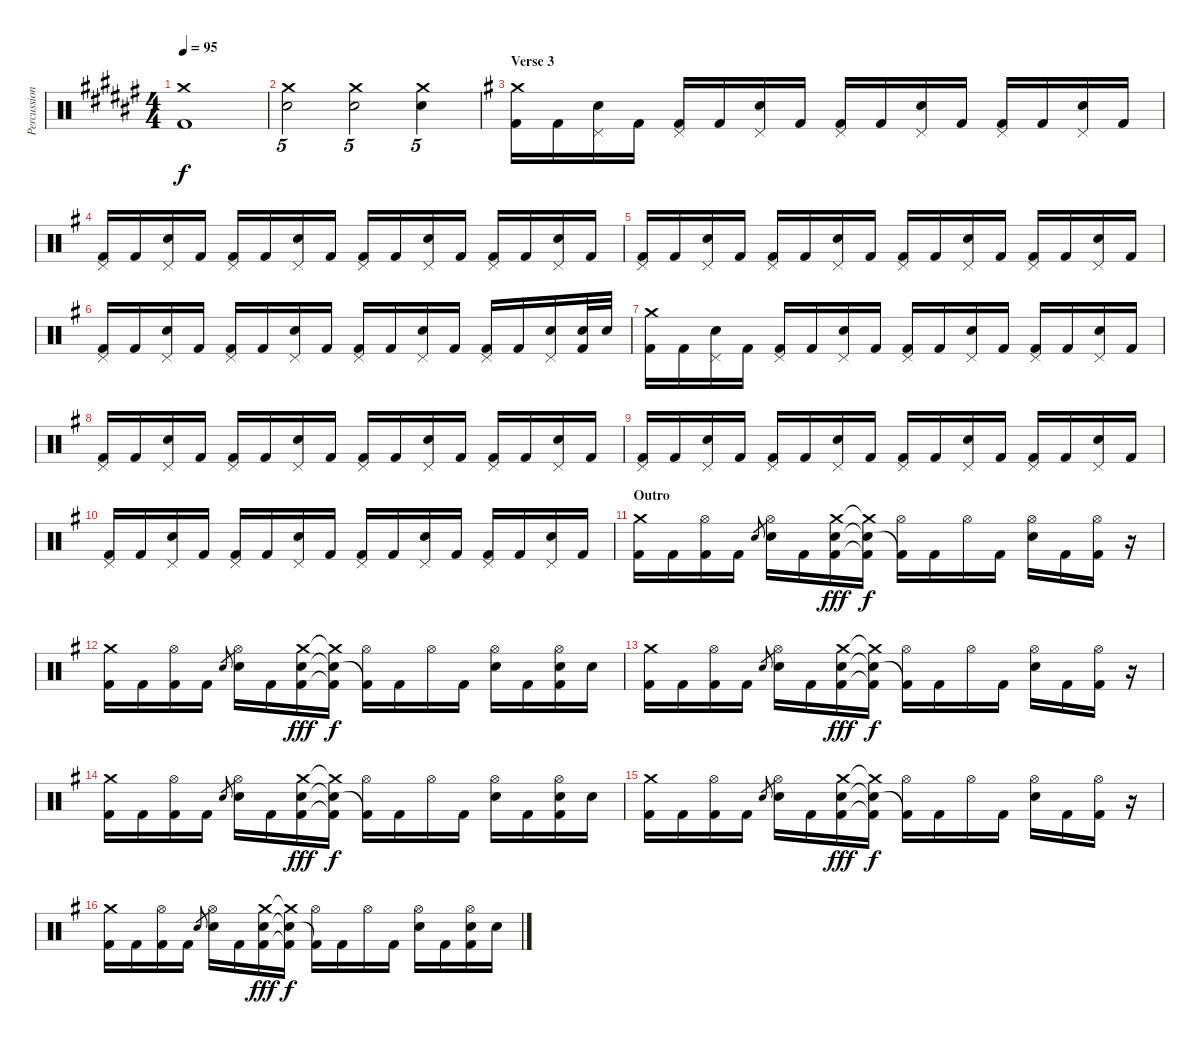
\track ("Percussions" "Percussion") {instrument percussion}
\staff {score}
\articulation defaults
\ts (4 4)
\tempo 95
\clef neutral
\ks d#minor
("Crash medium (hit)" "Kick (hit) 2").1{dy f} |
("Crash medium (hit)" "Electric Snare (hit)").2{tu (5 4)} ("Crash medium (hit)" "Electric Snare (hit)").2{tu (5 4)} ("Crash medium (hit)" "Electric Snare (hit)").4{tu (5 4)} |
\section ("" "Verse 3")
\ks eminor
("Crash medium (hit)" "Kick (hit) 2").16 "Kick (hit) 2".16 ("Pedal Hi-Hat (hit)" "Electric Snare (hit)").16 "Kick (hit) 2".16 ("Pedal Hi-Hat (hit)" "Kick (hit) 2").16 "Kick (hit) 2".16 ("Pedal Hi-Hat (hit)" "Electric Snare (hit)").16 "Kick (hit) 2".16 ("Pedal Hi-Hat (hit)" "Kick (hit) 2").16 "Kick (hit) 2".16 ("Pedal Hi-Hat (hit)" "Electric Snare (hit)").16 "Kick (hit) 2".16 ("Pedal Hi-Hat (hit)" "Kick (hit) 2").16 "Kick (hit) 2".16 ("Pedal Hi-Hat (hit)" "Electric Snare (hit)").16 "Kick (hit) 2".16 |
("Pedal Hi-Hat (hit)" "Kick (hit) 2").16 "Kick (hit) 2".16 ("Pedal Hi-Hat (hit)" "Electric Snare (hit)").16 "Kick (hit) 2".16 ("Pedal Hi-Hat (hit)" "Kick (hit) 2").16 "Kick (hit) 2".16 ("Pedal Hi-Hat (hit)" "Electric Snare (hit)").16 "Kick (hit) 2".16 ("Pedal Hi-Hat (hit)" "Kick (hit) 2").16 "Kick (hit) 2".16 ("Pedal Hi-Hat (hit)" "Electric Snare (hit)").16 "Kick (hit) 2".16 ("Pedal Hi-Hat (hit)" "Kick (hit) 2").16 "Kick (hit) 2".16 ("Pedal Hi-Hat (hit)" "Electric Snare (hit)").16 "Kick (hit) 2".16 |
("Pedal Hi-Hat (hit)" "Kick (hit) 2").16 "Kick (hit) 2".16 ("Pedal Hi-Hat (hit)" "Electric Snare (hit)").16 "Kick (hit) 2".16 ("Pedal Hi-Hat (hit)" "Kick (hit) 2").16 "Kick (hit) 2".16 ("Pedal Hi-Hat (hit)" "Electric Snare (hit)").16 "Kick (hit) 2".16 ("Pedal Hi-Hat (hit)" "Kick (hit) 2").16 "Kick (hit) 2".16 ("Pedal Hi-Hat (hit)" "Electric Snare (hit)").16 "Kick (hit) 2".16 ("Pedal Hi-Hat (hit)" "Kick (hit) 2").16 "Kick (hit) 2".16 ("Pedal Hi-Hat (hit)" "Electric Snare (hit)").16 "Kick (hit) 2".16 |
("Pedal Hi-Hat (hit)" "Kick (hit) 2").16 "Kick (hit) 2".16 ("Pedal Hi-Hat (hit)" "Electric Snare (hit)").16 "Kick (hit) 2".16 ("Pedal Hi-Hat (hit)" "Kick (hit) 2").16 "Kick (hit) 2".16 ("Pedal Hi-Hat (hit)" "Electric Snare (hit)").16 "Kick (hit) 2".16 ("Pedal Hi-Hat (hit)" "Kick (hit) 2").16 "Kick (hit) 2".16 ("Pedal Hi-Hat (hit)" "Electric Snare (hit)").16 "Kick (hit) 2".16 ("Pedal Hi-Hat (hit)" "Kick (hit) 2").16 "Kick (hit) 2".16 ("Pedal Hi-Hat (hit)" "Electric Snare (hit)").16 ("Electric Snare (hit)" "Kick (hit) 2").32 "Electric Snare (hit)".32 |
("Crash medium (hit)" "Kick (hit) 2").16 "Kick (hit) 2".16 ("Pedal Hi-Hat (hit)" "Electric Snare (hit)").16 "Kick (hit) 2".16 ("Pedal Hi-Hat (hit)" "Kick (hit) 2").16 "Kick (hit) 2".16 ("Pedal Hi-Hat (hit)" "Electric Snare (hit)").16 "Kick (hit) 2".16 ("Pedal Hi-Hat (hit)" "Kick (hit) 2").16 "Kick (hit) 2".16 ("Pedal Hi-Hat (hit)" "Electric Snare (hit)").16 "Kick (hit) 2".16 ("Pedal Hi-Hat (hit)" "Kick (hit) 2").16 "Kick (hit) 2".16 ("Pedal Hi-Hat (hit)" "Electric Snare (hit)").16 "Kick (hit) 2".16 |
("Pedal Hi-Hat (hit)" "Kick (hit) 2").16 "Kick (hit) 2".16 ("Pedal Hi-Hat (hit)" "Electric Snare (hit)").16 "Kick (hit) 2".16 ("Pedal Hi-Hat (hit)" "Kick (hit) 2").16 "Kick (hit) 2".16 ("Pedal Hi-Hat (hit)" "Electric Snare (hit)").16 "Kick (hit) 2".16 ("Pedal Hi-Hat (hit)" "Kick (hit) 2").16 "Kick (hit) 2".16 ("Pedal Hi-Hat (hit)" "Electric Snare (hit)").16 "Kick (hit) 2".16 ("Pedal Hi-Hat (hit)" "Kick (hit) 2").16 "Kick (hit) 2".16 ("Pedal Hi-Hat (hit)" "Electric Snare (hit)").16 "Kick (hit) 2".16 |
("Pedal Hi-Hat (hit)" "Kick (hit) 2").16 "Kick (hit) 2".16 ("Pedal Hi-Hat (hit)" "Electric Snare (hit)").16 "Kick (hit) 2".16 ("Pedal Hi-Hat (hit)" "Kick (hit) 2").16 "Kick (hit) 2".16 ("Pedal Hi-Hat (hit)" "Electric Snare (hit)").16 "Kick (hit) 2".16 ("Pedal Hi-Hat (hit)" "Kick (hit) 2").16 "Kick (hit) 2".16 ("Pedal Hi-Hat (hit)" "Electric Snare (hit)").16 "Kick (hit) 2".16 ("Pedal Hi-Hat (hit)" "Kick (hit) 2").16 "Kick (hit) 2".16 ("Pedal Hi-Hat (hit)" "Electric Snare (hit)").16 "Kick (hit) 2".16 |
("Pedal Hi-Hat (hit)" "Kick (hit) 2").16 "Kick (hit) 2".16 ("Pedal Hi-Hat (hit)" "Electric Snare (hit)").16 "Kick (hit) 2".16 ("Pedal Hi-Hat (hit)" "Kick (hit) 2").16 "Kick (hit) 2".16 ("Pedal Hi-Hat (hit)" "Electric Snare (hit)").16 "Kick (hit) 2".16 ("Pedal Hi-Hat (hit)" "Kick (hit) 2").16 "Kick (hit) 2".16 ("Pedal Hi-Hat (hit)" "Electric Snare (hit)").16 "Kick (hit) 2".16 ("Pedal Hi-Hat (hit)" "Kick (hit) 2").16 "Kick (hit) 2".16 ("Pedal Hi-Hat (hit)" "Electric Snare (hit)").16 "Kick (hit) 2".16 |
\section ("" "Outro")
("Crash medium (hit)" "Kick (hit) 2").16 "Kick (hit) 2".16 ("Hi-Hat (open)" "Kick (hit) 2").16 "Kick (hit) 2".16 "Electric Snare (hit)".8{gr} ("Hi-Hat (open)" "Electric Snare (hit)").16 "Kick (hit) 2".16 ("Crash medium (hit)" "Electric Snare (hit)" "Kick (hit) 2").16{dy fff} ("Crash medium (hit)"{t} "Electric Snare (hit)"{t} "Kick (hit) 2"{t}).16{dy f} ("Hi-Hat (open)" "Kick (hit) 2"{t}).16 "Kick (hit) 2".16 "Hi-Hat (open)".16 "Kick (hit) 2".16 ("Hi-Hat (open)" "Electric Snare (hit)").16 "Kick (hit) 2".16 ("Hi-Hat (open)" "Kick (hit) 2").16 r.16 |
("Crash medium (hit)" "Kick (hit) 2").16 "Kick (hit) 2".16 ("Hi-Hat (open)" "Kick (hit) 2").16 "Kick (hit) 2".16 "Electric Snare (hit)".8{gr} ("Hi-Hat (open)" "Electric Snare (hit)").16 "Kick (hit) 2".16 ("Crash medium (hit)" "Electric Snare (hit)" "Kick (hit) 2").16{dy fff} ("Crash medium (hit)"{t} "Electric Snare (hit)"{t} "Kick (hit) 2"{t}).16{dy f} ("Hi-Hat (open)" "Kick (hit) 2"{t}).16 "Kick (hit) 2".16 "Hi-Hat (open)".16 "Kick (hit) 2".16 ("Hi-Hat (open)" "Electric Snare (hit)").16 "Kick (hit) 2".16 ("Hi-Hat (open)" "Electric Snare (hit)" "Kick (hit) 2").16 "Electric Snare (hit)".16 |
("Crash medium (hit)" "Kick (hit) 2").16 "Kick (hit) 2".16 ("Hi-Hat (open)" "Kick (hit) 2").16 "Kick (hit) 2".16 "Electric Snare (hit)".8{gr} ("Hi-Hat (open)" "Electric Snare (hit)").16 "Kick (hit) 2".16 ("Crash medium (hit)" "Electric Snare (hit)" "Kick (hit) 2").16{dy fff} ("Crash medium (hit)"{t} "Electric Snare (hit)"{t} "Kick (hit) 2"{t}).16{dy f} ("Hi-Hat (open)" "Kick (hit) 2"{t}).16 "Kick (hit) 2".16 "Hi-Hat (open)".16 "Kick (hit) 2".16 ("Hi-Hat (open)" "Electric Snare (hit)").16 "Kick (hit) 2".16 ("Hi-Hat (open)" "Kick (hit) 2").16 r.16 |
("Crash medium (hit)" "Kick (hit) 2").16 "Kick (hit) 2".16 ("Hi-Hat (open)" "Kick (hit) 2").16 "Kick (hit) 2".16 "Electric Snare (hit)".8{gr} ("Hi-Hat (open)" "Electric Snare (hit)").16 "Kick (hit) 2".16 ("Crash medium (hit)" "Electric Snare (hit)" "Kick (hit) 2").16{dy fff} ("Crash medium (hit)"{t} "Electric Snare (hit)"{t} "Kick (hit) 2"{t}).16{dy f} ("Hi-Hat (open)" "Kick (hit) 2"{t}).16 "Kick (hit) 2".16 "Hi-Hat (open)".16 "Kick (hit) 2".16 ("Hi-Hat (open)" "Electric Snare (hit)").16 "Kick (hit) 2".16 ("Hi-Hat (open)" "Electric Snare (hit)" "Kick (hit) 2").16 "Electric Snare (hit)".16 |
("Crash medium (hit)" "Kick (hit) 2").16 "Kick (hit) 2".16 ("Hi-Hat (open)" "Kick (hit) 2").16 "Kick (hit) 2".16 "Electric Snare (hit)".8{gr} ("Hi-Hat (open)" "Electric Snare (hit)").16 "Kick (hit) 2".16 ("Crash medium (hit)" "Electric Snare (hit)" "Kick (hit) 2").16{dy fff} ("Crash medium (hit)"{t} "Electric Snare (hit)"{t} "Kick (hit) 2"{t}).16{dy f} ("Hi-Hat (open)" "Kick (hit) 2"{t}).16 "Kick (hit) 2".16 "Hi-Hat (open)".16 "Kick (hit) 2".16 ("Hi-Hat (open)" "Electric Snare (hit)").16 "Kick (hit) 2".16 ("Hi-Hat (open)" "Kick (hit) 2").16 r.16 |
("Crash medium (hit)" "Kick (hit) 2").16 "Kick (hit) 2".16 ("Hi-Hat (open)" "Kick (hit) 2").16 "Kick (hit) 2".16 "Electric Snare (hit)".8{gr} ("Hi-Hat (open)" "Electric Snare (hit)").16 "Kick (hit) 2".16 ("Crash medium (hit)" "Electric Snare (hit)" "Kick (hit) 2").16{dy fff} ("Crash medium (hit)"{t} "Electric Snare (hit)"{t} "Kick (hit) 2"{t}).16{dy f} ("Hi-Hat (open)" "Kick (hit) 2"{t}).16 "Kick (hit) 2".16 "Hi-Hat (open)".16 "Kick (hit) 2".16 ("Hi-Hat (open)" "Electric Snare (hit)").16 "Kick (hit) 2".16 ("Hi-Hat (open)" "Electric Snare (hit)" "Kick (hit) 2").16 "Electric Snare (hit)".16
